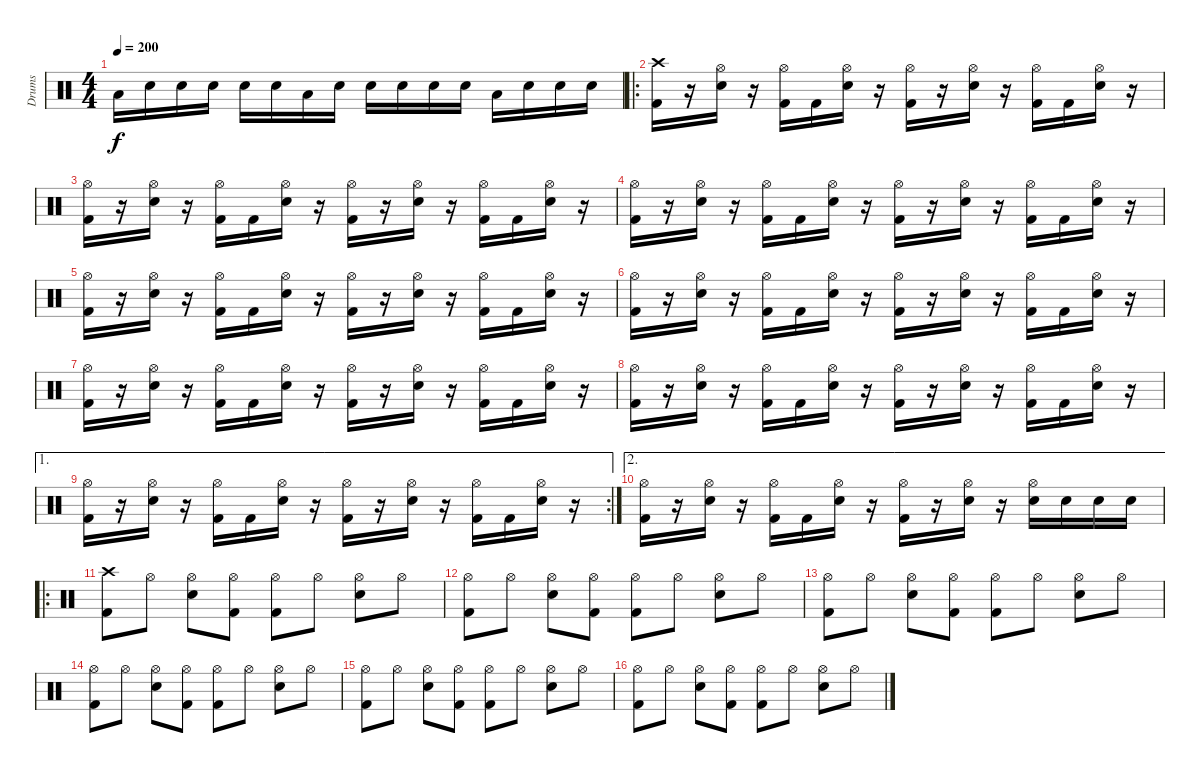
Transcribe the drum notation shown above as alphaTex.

\track ("Drums" "Drums") {instrument percussion}
\staff {score}
\articulation defaults
\ts (4 4)
\tempo 200
\clef neutral
\ks c "Low Tom (hit)".16{dy f} "Electric Snare (hit)".16 "Electric Snare (hit)".16 "Electric Snare (hit)".16 "Electric Snare (hit)".16 "Electric Snare (hit)".16 "Low Tom (hit)".16 "Electric Snare (hit)".16 "Electric Snare (hit)".16 "Electric Snare (hit)".16 "Electric Snare (hit)".16 "Electric Snare (hit)".16 "Low Tom (hit)".16 "Electric Snare (hit)".16 "Electric Snare (hit)".16 "Electric Snare (hit)".16
|
\ro
("Crash high (hit)" "Kick (hit) 2").16 r.16 ("Hi-Hat (open)" "Electric Snare (hit)").16 r.16 ("Hi-Hat (open)" "Kick (hit) 2").16 "Kick (hit) 2".16 ("Hi-Hat (open)" "Electric Snare (hit)").16 r.16 ("Hi-Hat (open)" "Kick (hit) 2").16 r.16 ("Hi-Hat (open)" "Electric Snare (hit)").16 r.16 ("Hi-Hat (open)" "Kick (hit) 2").16 "Kick (hit) 2".16 ("Hi-Hat (open)" "Electric Snare (hit)").16 r.16 |
("Hi-Hat (open)" "Kick (hit) 2").16 r.16 ("Hi-Hat (open)" "Electric Snare (hit)").16 r.16 ("Hi-Hat (open)" "Kick (hit) 2").16 "Kick (hit) 2".16 ("Hi-Hat (open)" "Electric Snare (hit)").16 r.16 ("Hi-Hat (open)" "Kick (hit) 2").16 r.16 ("Hi-Hat (open)" "Electric Snare (hit)").16 r.16 ("Hi-Hat (open)" "Kick (hit) 2").16 "Kick (hit) 2".16 ("Hi-Hat (open)" "Electric Snare (hit)").16 r.16 |
("Hi-Hat (open)" "Kick (hit) 2").16 r.16 ("Hi-Hat (open)" "Electric Snare (hit)").16 r.16 ("Hi-Hat (open)" "Kick (hit) 2").16 "Kick (hit) 2".16 ("Hi-Hat (open)" "Electric Snare (hit)").16 r.16 ("Hi-Hat (open)" "Kick (hit) 2").16 r.16 ("Hi-Hat (open)" "Electric Snare (hit)").16 r.16 ("Hi-Hat (open)" "Kick (hit) 2").16 "Kick (hit) 2".16 ("Hi-Hat (open)" "Electric Snare (hit)").16 r.16 |
("Hi-Hat (open)" "Kick (hit) 2").16 r.16 ("Hi-Hat (open)" "Electric Snare (hit)").16 r.16 ("Hi-Hat (open)" "Kick (hit) 2").16 "Kick (hit) 2".16 ("Hi-Hat (open)" "Electric Snare (hit)").16 r.16 ("Hi-Hat (open)" "Kick (hit) 2").16 r.16 ("Hi-Hat (open)" "Electric Snare (hit)").16 r.16 ("Hi-Hat (open)" "Kick (hit) 2").16 "Kick (hit) 2".16 ("Hi-Hat (open)" "Electric Snare (hit)").16 r.16 |
("Hi-Hat (open)" "Kick (hit) 2").16 r.16 ("Hi-Hat (open)" "Electric Snare (hit)").16 r.16 ("Hi-Hat (open)" "Kick (hit) 2").16 "Kick (hit) 2".16 ("Hi-Hat (open)" "Electric Snare (hit)").16 r.16 ("Hi-Hat (open)" "Kick (hit) 2").16 r.16 ("Hi-Hat (open)" "Electric Snare (hit)").16 r.16 ("Hi-Hat (open)" "Kick (hit) 2").16 "Kick (hit) 2".16 ("Hi-Hat (open)" "Electric Snare (hit)").16 r.16 |
("Hi-Hat (open)" "Kick (hit) 2").16 r.16 ("Hi-Hat (open)" "Electric Snare (hit)").16 r.16 ("Hi-Hat (open)" "Kick (hit) 2").16 "Kick (hit) 2".16 ("Hi-Hat (open)" "Electric Snare (hit)").16 r.16 ("Hi-Hat (open)" "Kick (hit) 2").16 r.16 ("Hi-Hat (open)" "Electric Snare (hit)").16 r.16 ("Hi-Hat (open)" "Kick (hit) 2").16 "Kick (hit) 2".16 ("Hi-Hat (open)" "Electric Snare (hit)").16 r.16 |
("Hi-Hat (open)" "Kick (hit) 2").16 r.16 ("Hi-Hat (open)" "Electric Snare (hit)").16 r.16 ("Hi-Hat (open)" "Kick (hit) 2").16 "Kick (hit) 2".16 ("Hi-Hat (open)" "Electric Snare (hit)").16 r.16 ("Hi-Hat (open)" "Kick (hit) 2").16 r.16 ("Hi-Hat (open)" "Electric Snare (hit)").16 r.16 ("Hi-Hat (open)" "Kick (hit) 2").16 "Kick (hit) 2".16 ("Hi-Hat (open)" "Electric Snare (hit)").16 r.16 |
\ae 1
\rc 2
("Hi-Hat (open)" "Kick (hit) 2").16 r.16 ("Hi-Hat (open)" "Electric Snare (hit)").16 r.16 ("Hi-Hat (open)" "Kick (hit) 2").16 "Kick (hit) 2".16 ("Hi-Hat (open)" "Electric Snare (hit)").16 r.16 ("Hi-Hat (open)" "Kick (hit) 2").16 r.16 ("Hi-Hat (open)" "Electric Snare (hit)").16 r.16 ("Hi-Hat (open)" "Kick (hit) 2").16 "Kick (hit) 2".16 ("Hi-Hat (open)" "Electric Snare (hit)").16 r.16 |
\ae 2
("Hi-Hat (open)" "Kick (hit) 2").16 r.16 ("Hi-Hat (open)" "Electric Snare (hit)").16 r.16 ("Hi-Hat (open)" "Kick (hit) 2").16 "Kick (hit) 2".16 ("Hi-Hat (open)" "Electric Snare (hit)").16 r.16 ("Hi-Hat (open)" "Kick (hit) 2").16 r.16 ("Hi-Hat (open)" "Electric Snare (hit)").16 r.16 ("Hi-Hat (open)" "Electric Snare (hit)").16 "Electric Snare (hit)".16 "Electric Snare (hit)".16 "Electric Snare (hit)".16 |
\ro
("Crash high (hit)" "Kick (hit) 2").8 "Hi-Hat (open)".8 ("Hi-Hat (open)" "Electric Snare (hit)").8 ("Hi-Hat (open)" "Kick (hit) 2").8 ("Hi-Hat (open)" "Kick (hit) 2").8 "Hi-Hat (open)".8 ("Hi-Hat (open)" "Electric Snare (hit)").8 "Hi-Hat (open)".8 |
("Hi-Hat (open)" "Kick (hit) 2").8 "Hi-Hat (open)".8 ("Hi-Hat (open)" "Electric Snare (hit)").8 ("Hi-Hat (open)" "Kick (hit) 2").8 ("Hi-Hat (open)" "Kick (hit) 2").8 "Hi-Hat (open)".8 ("Hi-Hat (open)" "Electric Snare (hit)").8 "Hi-Hat (open)".8 |
("Hi-Hat (open)" "Kick (hit) 2").8 "Hi-Hat (open)".8 ("Hi-Hat (open)" "Electric Snare (hit)").8 ("Hi-Hat (open)" "Kick (hit) 2").8 ("Hi-Hat (open)" "Kick (hit) 2").8 "Hi-Hat (open)".8 ("Hi-Hat (open)" "Electric Snare (hit)").8 "Hi-Hat (open)".8 |
("Hi-Hat (open)" "Kick (hit) 2").8 "Hi-Hat (open)".8 ("Hi-Hat (open)" "Electric Snare (hit)").8 ("Hi-Hat (open)" "Kick (hit) 2").8 ("Hi-Hat (open)" "Kick (hit) 2").8 "Hi-Hat (open)".8 ("Hi-Hat (open)" "Electric Snare (hit)").8 "Hi-Hat (open)".8 |
("Hi-Hat (open)" "Kick (hit) 2").8 "Hi-Hat (open)".8 ("Hi-Hat (open)" "Electric Snare (hit)").8 ("Hi-Hat (open)" "Kick (hit) 2").8 ("Hi-Hat (open)" "Kick (hit) 2").8 "Hi-Hat (open)".8 ("Hi-Hat (open)" "Electric Snare (hit)").8 "Hi-Hat (open)".8 |
("Hi-Hat (open)" "Kick (hit) 2").8 "Hi-Hat (open)".8 ("Hi-Hat (open)" "Electric Snare (hit)").8 ("Hi-Hat (open)" "Kick (hit) 2").8 ("Hi-Hat (open)" "Kick (hit) 2").8 "Hi-Hat (open)".8 ("Hi-Hat (open)" "Electric Snare (hit)").8 "Hi-Hat (open)".8
